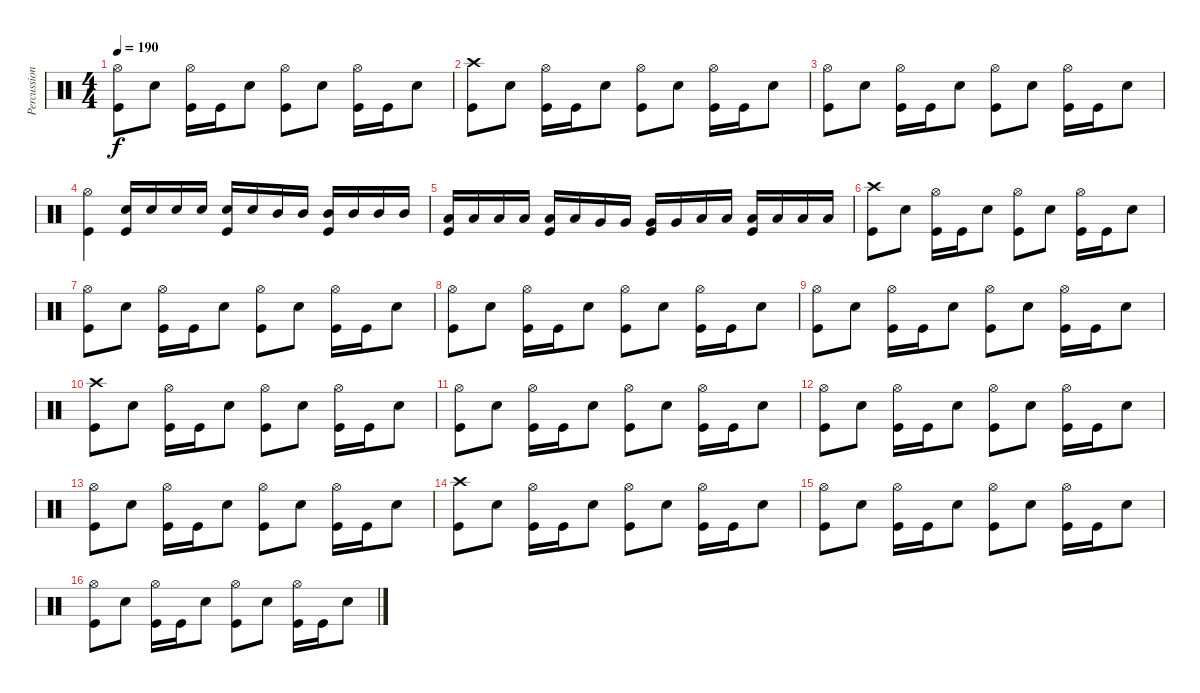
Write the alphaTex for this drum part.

\track ("Percussion" "Percussion") {instrument percussion}
\staff {score}
\articulation defaults
\ts (4 4)
\tempo 190
\clef neutral
\ks c
("Hi-Hat (open)" "Kick (hit)").8{dy f} "Snare (hit) 2".8 ("Hi-Hat (open)" "Kick (hit)").16 "Kick (hit)".16 "Snare (hit) 2".8 ("Hi-Hat (open)" "Kick (hit)").8 "Snare (hit) 2".8 ("Hi-Hat (open)" "Kick (hit)").16 "Kick (hit)".16 "Snare (hit) 2".8 |
("Crash high (hit)" "Kick (hit)").8 "Snare (hit) 2".8 ("Hi-Hat (open)" "Kick (hit)").16 "Kick (hit)".16 "Snare (hit) 2".8 ("Hi-Hat (open)" "Kick (hit)").8 "Snare (hit) 2".8 ("Hi-Hat (open)" "Kick (hit)").16 "Kick (hit)".16 "Snare (hit) 2".8 |
("Hi-Hat (open)" "Kick (hit)").8 "Snare (hit) 2".8 ("Hi-Hat (open)" "Kick (hit)").16 "Kick (hit)".16 "Snare (hit) 2".8 ("Hi-Hat (open)" "Kick (hit)").8 "Snare (hit) 2".8 ("Hi-Hat (open)" "Kick (hit)").16 "Kick (hit)".16 "Snare (hit) 2".8 |
("Hi-Hat (open)" "Kick (hit)").4 ("Snare (hit) 2" "Kick (hit)").16 "Snare (hit) 2".16 "Snare (hit) 2".16 "Snare (hit) 2".16 ("Snare (hit) 2" "Kick (hit)").16 "Snare (hit) 2".16 "Mid Tom (hit)".16 "Mid Tom (hit)".16 ("Mid Tom (hit)" "Kick (hit)").16 "Mid Tom (hit)".16 "Mid Tom (hit)".16 "Mid Tom (hit)".16 |
("Low Tom (hit)" "Kick (hit)").16 "Low Tom (hit)".16 "Low Tom (hit)".16 "Low Tom (hit)".16 ("Low Tom (hit)" "Kick (hit)").16 "Low Tom (hit)".16 "Very Low Tom (hit)".16 "Very Low Tom (hit)".16 ("Very Low Tom (hit)" "Kick (hit)").16 "Very Low Tom (hit)".16 "Low Floor Tom (hit)".16 "Low Floor Tom (hit)".16 ("Low Floor Tom (hit)" "Kick (hit)").16 "Low Floor Tom (hit)".16 "Low Floor Tom (hit)".16 "Low Floor Tom (hit)".16 |
("Crash high (hit)" "Kick (hit)").8 "Snare (hit) 2".8 ("Hi-Hat (open)" "Kick (hit)").16 "Kick (hit)".16 "Snare (hit) 2".8 ("Hi-Hat (open)" "Kick (hit)").8 "Snare (hit) 2".8 ("Hi-Hat (open)" "Kick (hit)").16 "Kick (hit)".16 "Snare (hit) 2".8 |
("Hi-Hat (open)" "Kick (hit)").8 "Snare (hit) 2".8 ("Hi-Hat (open)" "Kick (hit)").16 "Kick (hit)".16 "Snare (hit) 2".8 ("Hi-Hat (open)" "Kick (hit)").8 "Snare (hit) 2".8 ("Hi-Hat (open)" "Kick (hit)").16 "Kick (hit)".16 "Snare (hit) 2".8 |
("Hi-Hat (open)" "Kick (hit)").8 "Snare (hit) 2".8 ("Hi-Hat (open)" "Kick (hit)").16 "Kick (hit)".16 "Snare (hit) 2".8 ("Hi-Hat (open)" "Kick (hit)").8 "Snare (hit) 2".8 ("Hi-Hat (open)" "Kick (hit)").16 "Kick (hit)".16 "Snare (hit) 2".8 |
("Hi-Hat (open)" "Kick (hit)").8 "Snare (hit) 2".8 ("Hi-Hat (open)" "Kick (hit)").16 "Kick (hit)".16 "Snare (hit) 2".8 ("Hi-Hat (open)" "Kick (hit)").8 "Snare (hit) 2".8 ("Hi-Hat (open)" "Kick (hit)").16 "Kick (hit)".16 "Snare (hit) 2".8 |
("Crash high (hit)" "Kick (hit)").8 "Snare (hit) 2".8 ("Hi-Hat (open)" "Kick (hit)").16 "Kick (hit)".16 "Snare (hit) 2".8 ("Hi-Hat (open)" "Kick (hit)").8 "Snare (hit) 2".8 ("Hi-Hat (open)" "Kick (hit)").16 "Kick (hit)".16 "Snare (hit) 2".8 |
("Hi-Hat (open)" "Kick (hit)").8 "Snare (hit) 2".8 ("Hi-Hat (open)" "Kick (hit)").16 "Kick (hit)".16 "Snare (hit) 2".8 ("Hi-Hat (open)" "Kick (hit)").8 "Snare (hit) 2".8 ("Hi-Hat (open)" "Kick (hit)").16 "Kick (hit)".16 "Snare (hit) 2".8 |
("Hi-Hat (open)" "Kick (hit)").8 "Snare (hit) 2".8 ("Hi-Hat (open)" "Kick (hit)").16 "Kick (hit)".16 "Snare (hit) 2".8 ("Hi-Hat (open)" "Kick (hit)").8 "Snare (hit) 2".8 ("Hi-Hat (open)" "Kick (hit)").16 "Kick (hit)".16 "Snare (hit) 2".8 |
("Hi-Hat (open)" "Kick (hit)").8 "Snare (hit) 2".8 ("Hi-Hat (open)" "Kick (hit)").16 "Kick (hit)".16 "Snare (hit) 2".8 ("Hi-Hat (open)" "Kick (hit)").8 "Snare (hit) 2".8 ("Hi-Hat (open)" "Kick (hit)").16 "Kick (hit)".16 "Snare (hit) 2".8 |
("Crash high (hit)" "Kick (hit)").8 "Snare (hit) 2".8 ("Hi-Hat (open)" "Kick (hit)").16 "Kick (hit)".16 "Snare (hit) 2".8 ("Hi-Hat (open)" "Kick (hit)").8 "Snare (hit) 2".8 ("Hi-Hat (open)" "Kick (hit)").16 "Kick (hit)".16 "Snare (hit) 2".8 |
("Hi-Hat (open)" "Kick (hit)").8 "Snare (hit) 2".8 ("Hi-Hat (open)" "Kick (hit)").16 "Kick (hit)".16 "Snare (hit) 2".8 ("Hi-Hat (open)" "Kick (hit)").8 "Snare (hit) 2".8 ("Hi-Hat (open)" "Kick (hit)").16 "Kick (hit)".16 "Snare (hit) 2".8 |
("Hi-Hat (open)" "Kick (hit)").8 "Snare (hit) 2".8 ("Hi-Hat (open)" "Kick (hit)").16 "Kick (hit)".16 "Snare (hit) 2".8 ("Hi-Hat (open)" "Kick (hit)").8 "Snare (hit) 2".8 ("Hi-Hat (open)" "Kick (hit)").16 "Kick (hit)".16 "Snare (hit) 2".8
